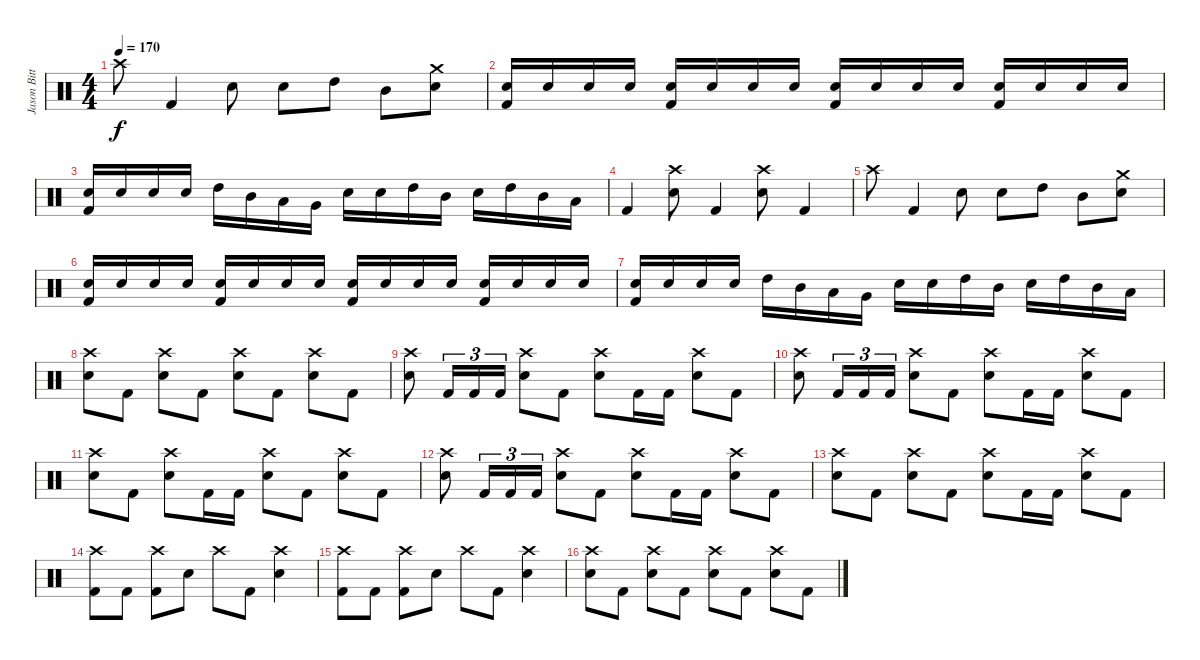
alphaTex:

\track ("Jason Bittner" "Jason Bitt") {instrument percussion}
\staff {score}
\articulation defaults
\ts (4 4)
\tempo 170
\clef neutral
\ks c "Crash high (hit)".8{dy f} "Kick (hit) 2".4 "Electric Snare (hit)".8 "Electric Snare (hit)".8 "High Tom (hit)".8 "Mid Tom (hit)".8
("Crash medium (hit)" "Electric Snare (hit)").8 |
("Electric Snare (hit)" "Kick (hit) 2").16 "Electric Snare (hit)".16 "Electric Snare (hit)".16 "Electric Snare (hit)".16 ("Electric Snare (hit)" "Kick (hit) 2").16 "Electric Snare (hit)".16 "Electric Snare (hit)".16 "Electric Snare (hit)".16 ("Electric Snare (hit)" "Kick (hit) 2").16 "Electric Snare (hit)".16 "Electric Snare (hit)".16 "Electric Snare (hit)".16 ("Electric Snare (hit)" "Kick (hit) 2").16 "Electric Snare (hit)".16 "Electric Snare (hit)".16 "Electric Snare (hit)".16 |
("Electric Snare (hit)" "Kick (hit) 2").16 "Electric Snare (hit)".16 "Electric Snare (hit)".16 "Electric Snare (hit)".16 "High Tom (hit)".16 "Mid Tom (hit)".16 "Low Tom (hit)".16 "Very Low Tom (hit)".16 "Electric Snare (hit)".16 "Electric Snare (hit)".16 "High Tom (hit)".16 "Mid Tom (hit)".16 "Electric Snare (hit)".16 "High Tom (hit)".16 "Mid Tom (hit)".16 "Low Tom (hit)".16 |
"Kick (hit) 2".4 ("Crash high (hit)" "Electric Snare (hit)").8 "Kick (hit) 2".4 ("Crash high (hit)" "Electric Snare (hit)").8 "Kick (hit) 2".4 |
"Crash high (hit)".8 "Kick (hit) 2".4 "Electric Snare (hit)".8 "Electric Snare (hit)".8 "High Tom (hit)".8 "Mid Tom (hit)".8 ("Crash medium (hit)" "Electric Snare (hit)").8 |
("Electric Snare (hit)" "Kick (hit) 2").16 "Electric Snare (hit)".16 "Electric Snare (hit)".16 "Electric Snare (hit)".16 ("Electric Snare (hit)" "Kick (hit) 2").16 "Electric Snare (hit)".16 "Electric Snare (hit)".16 "Electric Snare (hit)".16 ("Electric Snare (hit)" "Kick (hit) 2").16 "Electric Snare (hit)".16 "Electric Snare (hit)".16 "Electric Snare (hit)".16 ("Electric Snare (hit)" "Kick (hit) 2").16 "Electric Snare (hit)".16 "Electric Snare (hit)".16 "Electric Snare (hit)".16 |
("Electric Snare (hit)" "Kick (hit) 2").16 "Electric Snare (hit)".16 "Electric Snare (hit)".16 "Electric Snare (hit)".16 "High Tom (hit)".16 "Mid Tom (hit)".16 "Low Tom (hit)".16 "Very Low Tom (hit)".16 "Electric Snare (hit)".16 "Electric Snare (hit)".16 "High Tom (hit)".16 "Mid Tom (hit)".16 "Electric Snare (hit)".16 "High Tom (hit)".16 "Mid Tom (hit)".16 "Low Tom (hit)".16 |
("Crash high (hit)" "Electric Snare (hit)").8 "Kick (hit) 2".8 ("Crash high (hit)" "Electric Snare (hit)").8 "Kick (hit) 2".8 ("Crash high (hit)" "Electric Snare (hit)").8 "Kick (hit) 2".8 ("Crash high (hit)" "Electric Snare (hit)").8 "Kick (hit) 2".8 |
("Crash high (hit)" "Electric Snare (hit)").8 "Kick (hit) 2".16{tu (3 2)} "Kick (hit) 2".16{tu (3 2)} "Kick (hit) 2".16{tu (3 2)} ("Crash high (hit)" "Electric Snare (hit)").8 "Kick (hit) 2".8 ("Crash high (hit)" "Electric Snare (hit)").8 "Kick (hit) 2".16 "Kick (hit) 2".16 ("Crash high (hit)" "Electric Snare (hit)").8 "Kick (hit) 2".8 |
("Crash high (hit)" "Electric Snare (hit)").8 "Kick (hit) 2".16{tu (3 2)} "Kick (hit) 2".16{tu (3 2)} "Kick (hit) 2".16{tu (3 2)} ("Crash high (hit)" "Electric Snare (hit)").8 "Kick (hit) 2".8 ("Crash high (hit)" "Electric Snare (hit)").8 "Kick (hit) 2".16 "Kick (hit) 2".16 ("Crash high (hit)" "Electric Snare (hit)").8 "Kick (hit) 2".8 |
("Crash high (hit)" "Electric Snare (hit)").8 "Kick (hit) 2".8 ("Crash high (hit)" "Electric Snare (hit)").8 "Kick (hit) 2".16 "Kick (hit) 2".16 ("Crash high (hit)" "Electric Snare (hit)").8 "Kick (hit) 2".8 ("Crash high (hit)" "Electric Snare (hit)").8 "Kick (hit) 2".8 |
("Crash high (hit)" "Electric Snare (hit)").8 "Kick (hit) 2".16{tu (3 2)} "Kick (hit) 2".16{tu (3 2)} "Kick (hit) 2".16{tu (3 2)} ("Crash high (hit)" "Electric Snare (hit)").8 "Kick (hit) 2".8 ("Crash high (hit)" "Electric Snare (hit)").8 "Kick (hit) 2".16 "Kick (hit) 2".16 ("Crash high (hit)" "Electric Snare (hit)").8 "Kick (hit) 2".8 |
("Crash high (hit)" "Electric Snare (hit)").8 "Kick (hit) 2".8 ("Crash high (hit)" "Electric Snare (hit)").8 "Kick (hit) 2".8 ("Crash high (hit)" "Electric Snare (hit)").8 "Kick (hit) 2".16 "Kick (hit) 2".16 ("Crash high (hit)" "Electric Snare (hit)").8 "Kick (hit) 2".8 |
("Crash high (hit)" "Kick (hit) 2").8 "Kick (hit) 2".8 ("Crash high (hit)" "Kick (hit) 2").8 "Electric Snare (hit)".8 "Crash high (hit)".8 "Kick (hit) 2".8 ("Crash high (hit)" "Electric Snare (hit)").4 |
("Crash high (hit)" "Kick (hit) 2").8 "Kick (hit) 2".8 ("Crash high (hit)" "Kick (hit) 2").8 "Electric Snare (hit)".8 "Crash high (hit)".8 "Kick (hit) 2".8 ("Crash high (hit)" "Electric Snare (hit)").4 |
("Crash high (hit)" "Electric Snare (hit)").8 "Kick (hit) 2".8 ("Crash high (hit)" "Electric Snare (hit)").8 "Kick (hit) 2".8 ("Crash high (hit)" "Electric Snare (hit)").8 "Kick (hit) 2".8 ("Crash high (hit)" "Electric Snare (hit)").8 "Kick (hit) 2".8
